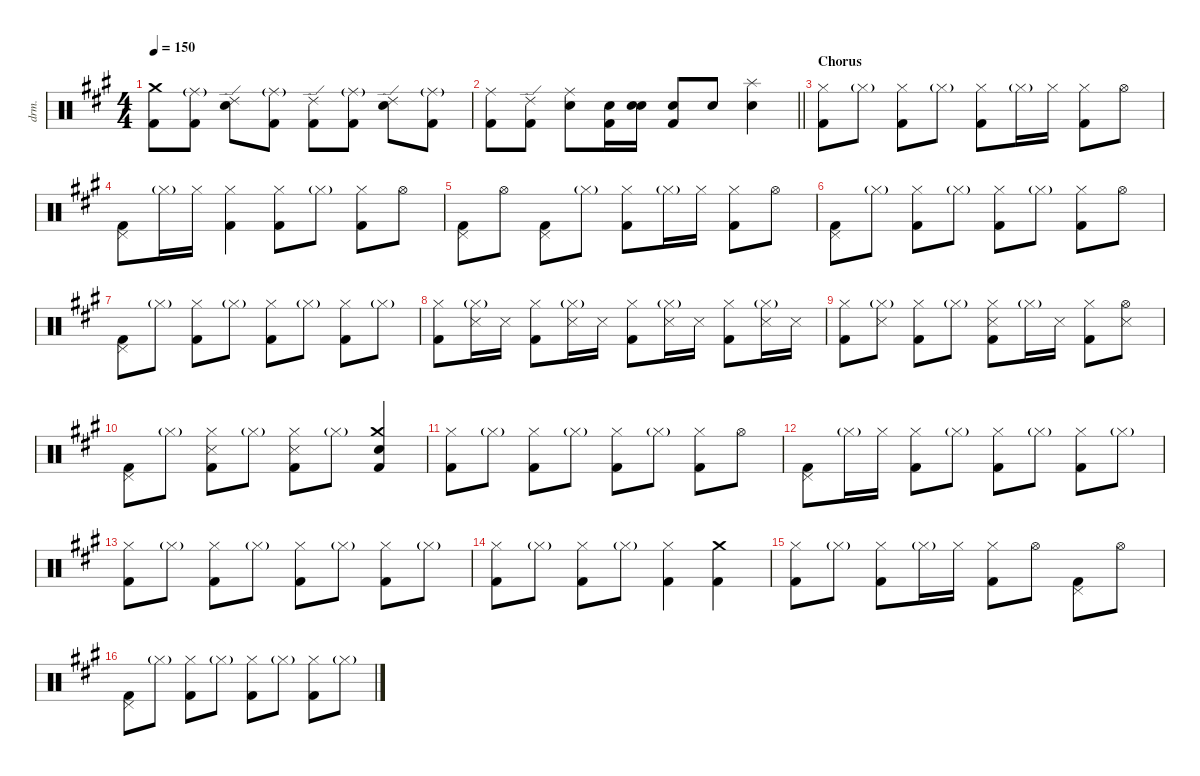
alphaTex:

\defaultSystemsLayout 4
\hideDynamics
\bracketExtendMode nobrackets
\otherSystemsTrackNameOrientation horizontal
\track ("Drums" "drm.") {instrument percussion}
\staff {score}
\articulation defaults
\ts (4 4)
\tempo 150
\clef neutral
\ks a
("Kick (hit) 2"{acc forcenatural} "Crash medium (hit)"{acc forcenatural}).8{dy fff} ("Kick (hit) 2"{acc forcenatural} "Ride (middle)"{g acc forcenatural}).8 ("Snare (hit) 2"{acc forcenatural} "Ride (edge) 2"{acc forcenatural}).8{dy ff} ("Kick (hit) 2"{acc forcenatural} "Ride (middle)"{g acc forcenatural}).8{dy mp} ("Kick (hit) 2"{acc forcenatural} "Ride (edge) 2"{acc forcenatural}).8{dy fff} ("Kick (hit) 2"{acc forcenatural} "Ride (middle)"{g acc forcenatural}).8 ("Snare (hit) 2"{acc forcenatural} "Ride (edge) 2"{acc forcenatural}).8{dy ff} ("Kick (hit) 2"{acc forcenatural} "Ride (middle)"{g acc forcenatural}).8{dy mp} |
\barLineRight lightlight
("Kick (hit) 2"{acc forcenatural} "Ride (middle)"{acc forcenatural}).8{dy fff} ("Kick (hit) 2"{acc forcenatural} "Ride (edge) 2"{acc forcenatural}).8 ("Snare (hit) 2"{acc forcenatural} "Ride (middle)"{acc forcenatural}).8{dy ff} ("Kick (hit) 2"{acc forcenatural} "Snare (hit) 2"{acc forcenatural}).16{dy mp} ("Snare (hit) 2"{acc forcenatural} "Snare (hit) 2"{acc forcenatural}).16{dy mf} ("Kick (hit) 2"{acc forcenatural} "Snare (hit) 2"{acc forcenatural}).8{dy fff} "Snare (hit) 2"{acc forcenatural}.8{dy ff} ("Snare (hit) 2"{acc forcenatural} "Splash (hit)"{acc forcenatural}).4{dy mf} |
\section ("" "Chorus")
("Kick (hit) 2"{acc forcenatural} "Hi-Hat (closed)"{acc forcenatural}).8{dy fff} "Hi-Hat (closed)"{g acc forcenatural}.8{dy p} ("Kick (hit) 2"{acc forcenatural} "Hi-Hat (closed)"{acc forcenatural}).8{dy fff} "Hi-Hat (closed)"{g acc forcenatural}.8{dy p} ("Kick (hit) 2"{acc forcenatural} "Hi-Hat (closed)"{acc forcenatural}).8{dy fff} "Hi-Hat (closed)"{g acc forcenatural}.16{dy mp} "Hi-Hat (closed)"{acc forcenatural}.16{dy mf} ("Kick (hit) 2"{acc forcenatural} "Hi-Hat (closed)"{acc forcenatural}).8{dy fff} "Hi-Hat (open)"{acc forcenatural}.8{dy mp} |
("Kick (hit) 2"{acc forcenatural} "Pedal Hi-Hat (hit)"{acc forcenatural}).8{dy fff} "Hi-Hat (closed)"{g acc forcenatural}.16{dy p} "Hi-Hat (closed)"{acc forcenatural}.16{dy mf} ("Kick (hit) 2"{acc forcenatural} "Hi-Hat (closed)"{acc forcenatural}).4{dy fff} ("Kick (hit) 2"{acc forcenatural} "Hi-Hat (closed)"{acc forcenatural}).8 "Hi-Hat (closed)"{g acc forcenatural}.8{dy p} ("Kick (hit) 2"{acc forcenatural} "Hi-Hat (closed)"{acc forcenatural}).8{dy fff} "Hi-Hat (open)"{acc forcenatural}.8{dy mp} |
("Kick (hit) 2"{acc forcenatural} "Pedal Hi-Hat (hit)"{acc forcenatural}).8{dy fff} "Hi-Hat (open)"{acc forcenatural}.8{dy mp} ("Kick (hit) 2"{acc forcenatural} "Pedal Hi-Hat (hit)"{acc forcenatural}).8{dy fff} "Hi-Hat (closed)"{g acc forcenatural}.8{dy p} ("Kick (hit) 2"{acc forcenatural} "Hi-Hat (closed)"{acc forcenatural}).8{dy fff} "Hi-Hat (closed)"{g acc forcenatural}.16{dy p} "Hi-Hat (closed)"{acc forcenatural}.16{dy mf} ("Kick (hit) 2"{acc forcenatural} "Hi-Hat (closed)"{acc forcenatural}).8{dy fff} "Hi-Hat (open)"{acc forcenatural}.8{dy mp} |
("Kick (hit) 2"{acc forcenatural} "Pedal Hi-Hat (hit)"{acc forcenatural}).8{dy fff} "Hi-Hat (closed)"{g acc forcenatural}.8{dy p} ("Kick (hit) 2"{acc forcenatural} "Hi-Hat (closed)"{acc forcenatural}).8{dy fff} "Hi-Hat (closed)"{g acc forcenatural}.8{dy p} ("Kick (hit) 2"{acc forcenatural} "Hi-Hat (closed)"{acc forcenatural}).8{dy fff} "Hi-Hat (closed)"{g acc forcenatural}.8{dy p} ("Kick (hit) 2"{acc forcenatural} "Hi-Hat (closed)"{acc forcenatural}).8{dy fff} "Hi-Hat (open)"{acc forcenatural}.8{dy pp} |
("Kick (hit) 2"{acc forcenatural} "Pedal Hi-Hat (hit)"{acc forcenatural}).8{dy fff} "Hi-Hat (closed)"{g acc forcenatural}.8{dy p} ("Kick (hit) 2"{acc forcenatural} "Hi-Hat (closed)"{acc forcenatural}).8{dy fff} "Hi-Hat (closed)"{g acc forcenatural}.8{dy p} ("Kick (hit) 2"{acc forcenatural} "Hi-Hat (closed)"{acc forcenatural}).8{dy fff} "Hi-Hat (closed)"{g acc forcenatural}.8{dy p} ("Kick (hit) 2"{acc forcenatural} "Hi-Hat (closed)"{acc forcenatural}).8{dy fff} "Hi-Hat (closed)"{g acc forcenatural}.8{dy p} |
("Kick (hit) 2"{acc forcenatural} "Hi-Hat (closed)"{acc forcenatural}).8{dy fff} ("Snare (side stick) 3"{acc forcenatural} "Hi-Hat (closed)"{g acc forcenatural}).16{dy mf} "Snare (side stick) 3"{acc forcenatural}.16 ("Kick (hit) 2"{acc forcenatural} "Hi-Hat (closed)"{acc forcenatural}).8{dy fff} ("Snare (side stick) 3"{acc forcenatural} "Hi-Hat (closed)"{g acc forcenatural}).16{dy mf} "Snare (side stick) 3"{acc forcenatural}.16 ("Kick (hit) 2"{acc forcenatural} "Hi-Hat (closed)"{acc forcenatural}).8{dy fff} ("Snare (side stick) 3"{acc forcenatural} "Hi-Hat (closed)"{g acc forcenatural}).16{dy mf} "Snare (side stick) 3"{acc forcenatural}.16 ("Kick (hit) 2"{acc forcenatural} "Hi-Hat (closed)"{acc forcenatural}).8{dy fff} ("Snare (side stick) 3"{acc forcenatural} "Hi-Hat (closed)"{g acc forcenatural}).16{dy mf} "Snare (side stick) 3"{acc forcenatural}.16 |
("Kick (hit) 2"{acc forcenatural} "Hi-Hat (closed)"{acc forcenatural}).8{dy fff} ("Snare (side stick) 3"{acc forcenatural} "Hi-Hat (closed)"{g acc forcenatural}).8{dy mf} ("Kick (hit) 2"{acc forcenatural} "Hi-Hat (closed)"{acc forcenatural}).8{dy fff} "Hi-Hat (closed)"{g acc forcenatural}.8{dy p} ("Kick (hit) 2"{acc forcenatural} "Snare (side stick) 3"{acc forcenatural} "Hi-Hat (closed)"{acc forcenatural}).8{dy fff} "Hi-Hat (closed)"{g acc forcenatural}.16{dy p} "Snare (side stick) 3"{acc forcenatural}.16{dy mf} ("Kick (hit) 2"{acc forcenatural} "Hi-Hat (closed)"{acc forcenatural}).8{dy fff} ("Snare (side stick) 3"{acc forcenatural} "Hi-Hat (open)"{acc forcenatural}).8{dy mf} |
("Kick (hit) 2"{acc forcenatural} "Pedal Hi-Hat (hit)"{acc forcenatural}).8{dy fff} "Hi-Hat (closed)"{g acc forcenatural}.8{dy p} ("Kick (hit) 2"{acc forcenatural} "Snare (side stick) 3"{acc forcenatural} "Hi-Hat (closed)"{acc forcenatural}).8{dy fff} "Hi-Hat (closed)"{g acc forcenatural}.8{dy p} ("Kick (hit) 2"{acc forcenatural} "Snare (side stick) 3"{acc forcenatural} "Hi-Hat (closed)"{acc forcenatural}).8{dy fff} "Hi-Hat (closed)"{g acc forcenatural}.8{dy p} ("Kick (hit) 2"{acc forcenatural} "Snare (hit) 2"{acc forcenatural} "Crash medium (hit)"{acc forcenatural}).4{dy fff} |
("Kick (hit) 2"{acc forcenatural} "Hi-Hat (closed)"{acc forcenatural}).8 "Hi-Hat (closed)"{g acc forcenatural}.8{dy p} ("Kick (hit) 2"{acc forcenatural} "Hi-Hat (closed)"{acc forcenatural}).8{dy fff} "Hi-Hat (closed)"{g acc forcenatural}.8{dy p} ("Kick (hit) 2"{acc forcenatural} "Hi-Hat (closed)"{acc forcenatural}).8{dy fff} "Hi-Hat (closed)"{g acc forcenatural}.8{dy p} ("Kick (hit) 2"{acc forcenatural} "Hi-Hat (closed)"{acc forcenatural}).8{dy fff} "Hi-Hat (open)"{acc forcenatural}.8{dy mp} |
("Kick (hit) 2"{acc forcenatural} "Pedal Hi-Hat (hit)"{acc forcenatural}).8{dy fff} "Hi-Hat (closed)"{g acc forcenatural}.16{dy p} "Hi-Hat (closed)"{acc forcenatural}.16{dy mf} ("Kick (hit) 2"{acc forcenatural} "Hi-Hat (closed)"{acc forcenatural}).8{dy fff} "Hi-Hat (closed)"{g acc forcenatural}.8{dy p} ("Kick (hit) 2"{acc forcenatural} "Hi-Hat (closed)"{acc forcenatural}).8{dy fff} "Hi-Hat (closed)"{g acc forcenatural}.8{dy p} ("Kick (hit) 2"{acc forcenatural} "Hi-Hat (closed)"{acc forcenatural}).8{dy fff} "Hi-Hat (closed)"{g acc forcenatural}.8{dy p} |
("Kick (hit) 2"{acc forcenatural} "Hi-Hat (closed)"{acc forcenatural}).8{dy fff} "Hi-Hat (closed)"{g acc forcenatural}.8{dy p} ("Kick (hit) 2"{acc forcenatural} "Hi-Hat (closed)"{acc forcenatural}).8{dy fff} "Hi-Hat (closed)"{g acc forcenatural}.8{dy p} ("Kick (hit) 2"{acc forcenatural} "Hi-Hat (closed)"{acc forcenatural}).8{dy fff} "Hi-Hat (closed)"{g acc forcenatural}.8{dy p} ("Kick (hit) 2"{acc forcenatural} "Hi-Hat (closed)"{acc forcenatural}).8{dy fff} "Hi-Hat (closed)"{g acc forcenatural}.8{dy p} |
("Kick (hit) 2"{acc forcenatural} "Hi-Hat (closed)"{acc forcenatural}).8{dy fff} "Hi-Hat (closed)"{g acc forcenatural}.8{dy p} ("Kick (hit) 2"{acc forcenatural} "Hi-Hat (closed)"{acc forcenatural}).8{dy fff} "Hi-Hat (closed)"{g acc forcenatural}.8{dy p} ("Kick (hit) 2"{acc forcenatural} "Hi-Hat (closed)"{acc forcenatural}).4{dy fff} ("Kick (hit) 2"{acc forcenatural} "Crash medium (hit)"{acc forcenatural}).4 |
("Kick (hit) 2"{acc forcenatural} "Hi-Hat (closed)"{acc forcenatural}).8 "Hi-Hat (closed)"{g acc forcenatural}.8{dy p} ("Kick (hit) 2"{acc forcenatural} "Hi-Hat (closed)"{acc forcenatural}).8{dy fff} "Hi-Hat (closed)"{g acc forcenatural}.16{dy p} "Hi-Hat (closed)"{acc forcenatural}.16{dy mf} ("Kick (hit) 2"{acc forcenatural} "Hi-Hat (closed)"{acc forcenatural}).8{dy fff} "Hi-Hat (open)"{acc forcenatural}.8{dy mp} ("Kick (hit) 2"{acc forcenatural} "Pedal Hi-Hat (hit)"{acc forcenatural}).8{dy fff} "Hi-Hat (open)"{acc forcenatural}.8{dy mp} |
("Kick (hit) 2"{acc forcenatural} "Pedal Hi-Hat (hit)"{acc forcenatural}).8{dy fff} "Hi-Hat (closed)"{g acc forcenatural}.8{dy p} ("Kick (hit) 2"{acc forcenatural} "Hi-Hat (closed)"{acc forcenatural}).8{dy fff} "Hi-Hat (closed)"{g acc forcenatural}.8{dy p} ("Kick (hit) 2"{acc forcenatural} "Hi-Hat (closed)"{acc forcenatural}).8{dy fff} "Hi-Hat (closed)"{g acc forcenatural}.8{dy p} ("Kick (hit) 2"{acc forcenatural} "Hi-Hat (closed)"{acc forcenatural}).8{dy fff} "Hi-Hat (closed)"{g acc forcenatural}.8{dy p}
